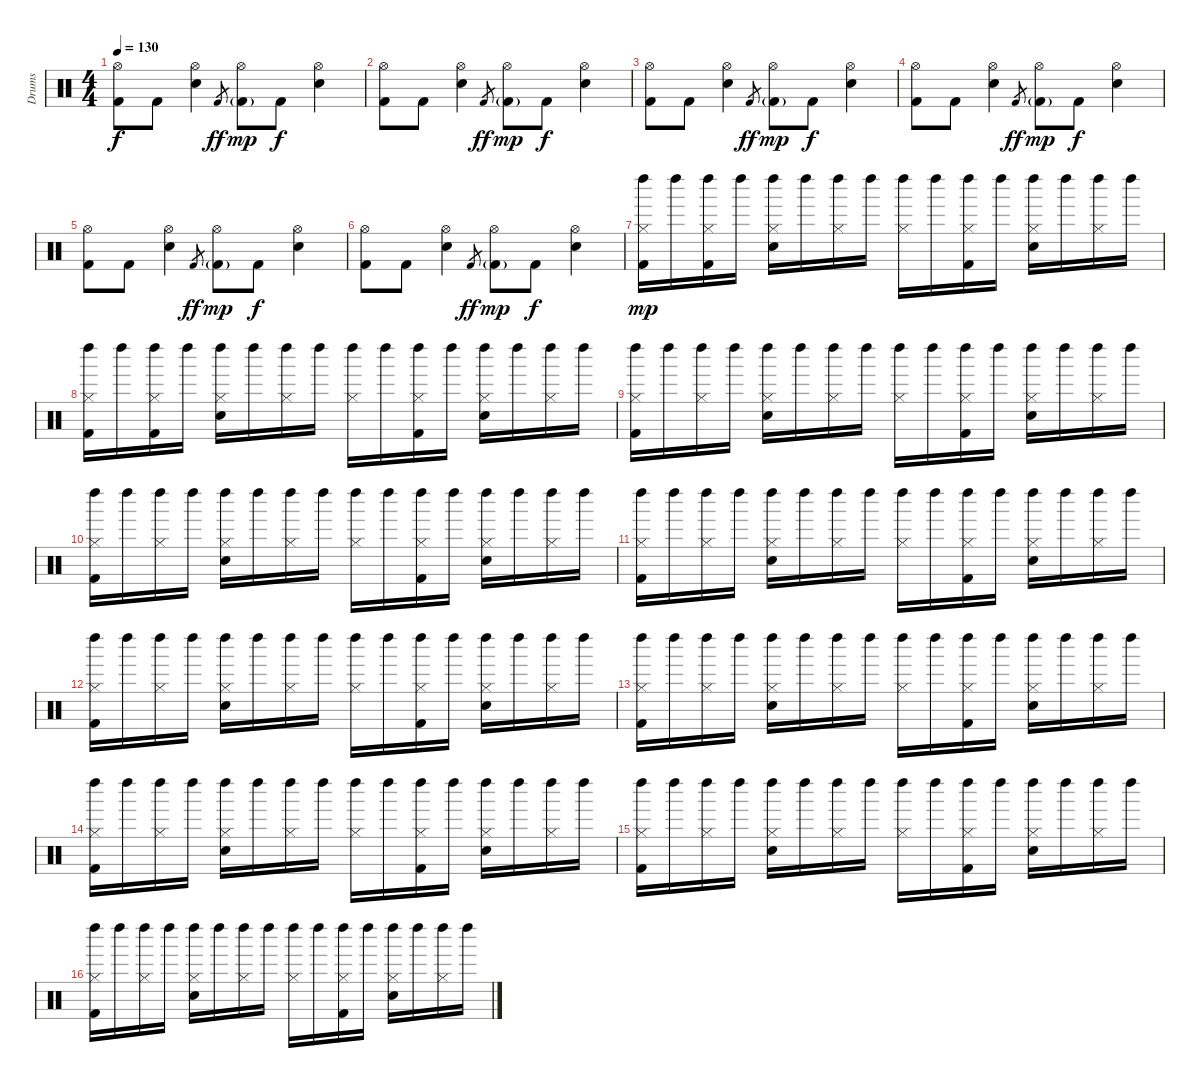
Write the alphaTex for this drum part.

\track ("Drums" "Drums") {instrument percussion}
\staff {score}
\articulation defaults
\ts (4 4)
\tempo 130
\clef neutral
\ks c
("Hi-Hat (open)" "Kick (hit) 2").8{dy f} "Kick (hit) 2".8 ("Hi-Hat (open)" "Electric Snare (hit)").4 "Kick (hit) 2".8{gr dy ff} ("Hi-Hat (open)" "Kick (hit) 2"{g}).8{dy mp} "Kick (hit) 2".8{dy f} ("Hi-Hat (open)" "Electric Snare (hit)").4 |
("Hi-Hat (open)" "Kick (hit) 2").8 "Kick (hit) 2".8 ("Hi-Hat (open)" "Electric Snare (hit)").4 "Kick (hit) 2".8{gr dy ff} ("Hi-Hat (open)" "Kick (hit) 2"{g}).8{dy mp} "Kick (hit) 2".8{dy f} ("Hi-Hat (open)" "Electric Snare (hit)").4 |
("Hi-Hat (open)" "Kick (hit) 2").8 "Kick (hit) 2".8 ("Hi-Hat (open)" "Electric Snare (hit)").4 "Kick (hit) 2".8{gr dy ff} ("Hi-Hat (open)" "Kick (hit) 2"{g}).8{dy mp} "Kick (hit) 2".8{dy f} ("Hi-Hat (open)" "Electric Snare (hit)").4 |
("Hi-Hat (open)" "Kick (hit) 2").8 "Kick (hit) 2".8 ("Hi-Hat (open)" "Electric Snare (hit)").4 "Kick (hit) 2".8{gr dy ff} ("Hi-Hat (open)" "Kick (hit) 2"{g}).8{dy mp} "Kick (hit) 2".8{dy f} ("Hi-Hat (open)" "Electric Snare (hit)").4 |
("Hi-Hat (open)" "Kick (hit) 2").8 "Kick (hit) 2".8 ("Hi-Hat (open)" "Electric Snare (hit)").4 "Kick (hit) 2".8{gr dy ff} ("Hi-Hat (open)" "Kick (hit) 2"{g}).8{dy mp} "Kick (hit) 2".8{dy f} ("Hi-Hat (open)" "Electric Snare (hit)").4 |
("Hi-Hat (open)" "Kick (hit) 2").8 "Kick (hit) 2".8 ("Hi-Hat (open)" "Electric Snare (hit)").4 "Kick (hit) 2".8{gr dy ff} ("Hi-Hat (open)" "Kick (hit) 2"{g}).8{dy mp} "Kick (hit) 2".8{dy f} ("Hi-Hat (open)" "Electric Snare (hit)").4 |
("Left Maraca (hit)" "Hi-Hat (closed)" "Kick (hit) 2").16{dy mp} "Left Maraca (hit)".16 ("Left Maraca (hit)" "Hi-Hat (closed)" "Kick (hit) 2").16 "Left Maraca (hit)".16 ("Left Maraca (hit)" "Hi-Hat (closed)" "Electric Snare (hit)").16 "Left Maraca (hit)".16 ("Left Maraca (hit)" "Hi-Hat (closed)").16 "Left Maraca (hit)".16 ("Left Maraca (hit)" "Hi-Hat (closed)").16 "Left Maraca (hit)".16 ("Left Maraca (hit)" "Hi-Hat (closed)" "Kick (hit) 2").16 "Left Maraca (hit)".16 ("Left Maraca (hit)" "Hi-Hat (closed)" "Electric Snare (hit)").16 "Left Maraca (hit)".16 ("Left Maraca (hit)" "Hi-Hat (closed)").16 "Left Maraca (hit)".16 |
("Left Maraca (hit)" "Hi-Hat (closed)" "Kick (hit) 2").16 "Left Maraca (hit)".16 ("Left Maraca (hit)" "Hi-Hat (closed)" "Kick (hit) 2").16 "Left Maraca (hit)".16 ("Left Maraca (hit)" "Hi-Hat (closed)" "Electric Snare (hit)").16 "Left Maraca (hit)".16 ("Left Maraca (hit)" "Hi-Hat (closed)").16 "Left Maraca (hit)".16 ("Left Maraca (hit)" "Hi-Hat (closed)").16 "Left Maraca (hit)".16 ("Left Maraca (hit)" "Hi-Hat (closed)" "Kick (hit) 2").16 "Left Maraca (hit)".16 ("Left Maraca (hit)" "Hi-Hat (closed)" "Electric Snare (hit)").16 "Left Maraca (hit)".16 ("Left Maraca (hit)" "Hi-Hat (closed)").16 "Left Maraca (hit)".16 |
("Left Maraca (hit)" "Hi-Hat (closed)" "Kick (hit) 2").16 "Left Maraca (hit)".16 ("Left Maraca (hit)" "Hi-Hat (closed)").16 "Left Maraca (hit)".16 ("Left Maraca (hit)" "Hi-Hat (closed)" "Electric Snare (hit)").16 "Left Maraca (hit)".16 ("Left Maraca (hit)" "Hi-Hat (closed)").16 "Left Maraca (hit)".16 ("Left Maraca (hit)" "Hi-Hat (closed)").16 "Left Maraca (hit)".16 ("Left Maraca (hit)" "Hi-Hat (closed)" "Kick (hit) 2").16 "Left Maraca (hit)".16 ("Left Maraca (hit)" "Hi-Hat (closed)" "Electric Snare (hit)").16 "Left Maraca (hit)".16 ("Left Maraca (hit)" "Hi-Hat (closed)").16 "Left Maraca (hit)".16 |
("Left Maraca (hit)" "Hi-Hat (closed)" "Kick (hit) 2").16 "Left Maraca (hit)".16 ("Left Maraca (hit)" "Hi-Hat (closed)").16 "Left Maraca (hit)".16 ("Left Maraca (hit)" "Hi-Hat (closed)" "Electric Snare (hit)").16 "Left Maraca (hit)".16 ("Left Maraca (hit)" "Hi-Hat (closed)").16 "Left Maraca (hit)".16 ("Left Maraca (hit)" "Hi-Hat (closed)").16 "Left Maraca (hit)".16 ("Left Maraca (hit)" "Hi-Hat (closed)" "Kick (hit) 2").16 "Left Maraca (hit)".16 ("Left Maraca (hit)" "Hi-Hat (closed)" "Electric Snare (hit)").16 "Left Maraca (hit)".16 ("Left Maraca (hit)" "Hi-Hat (closed)").16 "Left Maraca (hit)".16 |
("Left Maraca (hit)" "Hi-Hat (closed)" "Kick (hit) 2").16 "Left Maraca (hit)".16 ("Left Maraca (hit)" "Hi-Hat (closed)").16 "Left Maraca (hit)".16 ("Left Maraca (hit)" "Hi-Hat (closed)" "Electric Snare (hit)").16 "Left Maraca (hit)".16 ("Left Maraca (hit)" "Hi-Hat (closed)").16 "Left Maraca (hit)".16 ("Left Maraca (hit)" "Hi-Hat (closed)").16 "Left Maraca (hit)".16 ("Left Maraca (hit)" "Hi-Hat (closed)" "Kick (hit) 2").16 "Left Maraca (hit)".16 ("Left Maraca (hit)" "Hi-Hat (closed)" "Electric Snare (hit)").16 "Left Maraca (hit)".16 ("Left Maraca (hit)" "Hi-Hat (closed)").16 "Left Maraca (hit)".16 |
("Left Maraca (hit)" "Hi-Hat (closed)" "Kick (hit) 2").16 "Left Maraca (hit)".16 ("Left Maraca (hit)" "Hi-Hat (closed)").16 "Left Maraca (hit)".16 ("Left Maraca (hit)" "Hi-Hat (closed)" "Electric Snare (hit)").16 "Left Maraca (hit)".16 ("Left Maraca (hit)" "Hi-Hat (closed)").16 "Left Maraca (hit)".16 ("Left Maraca (hit)" "Hi-Hat (closed)").16 "Left Maraca (hit)".16 ("Left Maraca (hit)" "Hi-Hat (closed)" "Kick (hit) 2").16 "Left Maraca (hit)".16 ("Left Maraca (hit)" "Hi-Hat (closed)" "Electric Snare (hit)").16 "Left Maraca (hit)".16 ("Left Maraca (hit)" "Hi-Hat (closed)").16 "Left Maraca (hit)".16 |
("Left Maraca (hit)" "Hi-Hat (closed)" "Kick (hit) 2").16 "Left Maraca (hit)".16 ("Left Maraca (hit)" "Hi-Hat (closed)").16 "Left Maraca (hit)".16 ("Left Maraca (hit)" "Hi-Hat (closed)" "Electric Snare (hit)").16 "Left Maraca (hit)".16 ("Left Maraca (hit)" "Hi-Hat (closed)").16 "Left Maraca (hit)".16 ("Left Maraca (hit)" "Hi-Hat (closed)").16 "Left Maraca (hit)".16 ("Left Maraca (hit)" "Hi-Hat (closed)" "Kick (hit) 2").16 "Left Maraca (hit)".16 ("Left Maraca (hit)" "Hi-Hat (closed)" "Electric Snare (hit)").16 "Left Maraca (hit)".16 ("Left Maraca (hit)" "Hi-Hat (closed)").16 "Left Maraca (hit)".16 |
("Left Maraca (hit)" "Hi-Hat (closed)" "Kick (hit) 2").16 "Left Maraca (hit)".16 ("Left Maraca (hit)" "Hi-Hat (closed)").16 "Left Maraca (hit)".16 ("Left Maraca (hit)" "Hi-Hat (closed)" "Electric Snare (hit)").16 "Left Maraca (hit)".16 ("Left Maraca (hit)" "Hi-Hat (closed)").16 "Left Maraca (hit)".16 ("Left Maraca (hit)" "Hi-Hat (closed)").16 "Left Maraca (hit)".16 ("Left Maraca (hit)" "Hi-Hat (closed)" "Kick (hit) 2").16 "Left Maraca (hit)".16 ("Left Maraca (hit)" "Hi-Hat (closed)" "Electric Snare (hit)").16 "Left Maraca (hit)".16 ("Left Maraca (hit)" "Hi-Hat (closed)").16 "Left Maraca (hit)".16 |
("Left Maraca (hit)" "Hi-Hat (closed)" "Kick (hit) 2").16 "Left Maraca (hit)".16 ("Left Maraca (hit)" "Hi-Hat (closed)").16 "Left Maraca (hit)".16 ("Left Maraca (hit)" "Hi-Hat (closed)" "Electric Snare (hit)").16 "Left Maraca (hit)".16 ("Left Maraca (hit)" "Hi-Hat (closed)").16 "Left Maraca (hit)".16 ("Left Maraca (hit)" "Hi-Hat (closed)").16 "Left Maraca (hit)".16 ("Left Maraca (hit)" "Hi-Hat (closed)" "Kick (hit) 2").16 "Left Maraca (hit)".16 ("Left Maraca (hit)" "Hi-Hat (closed)" "Electric Snare (hit)").16 "Left Maraca (hit)".16 ("Left Maraca (hit)" "Hi-Hat (closed)").16 "Left Maraca (hit)".16 |
("Left Maraca (hit)" "Hi-Hat (closed)" "Kick (hit) 2").16 "Left Maraca (hit)".16 ("Left Maraca (hit)" "Hi-Hat (closed)").16 "Left Maraca (hit)".16 ("Left Maraca (hit)" "Hi-Hat (closed)" "Electric Snare (hit)").16 "Left Maraca (hit)".16 ("Left Maraca (hit)" "Hi-Hat (closed)").16 "Left Maraca (hit)".16 ("Left Maraca (hit)" "Hi-Hat (closed)").16 "Left Maraca (hit)".16 ("Left Maraca (hit)" "Hi-Hat (closed)" "Kick (hit) 2").16 "Left Maraca (hit)".16 ("Left Maraca (hit)" "Hi-Hat (closed)" "Electric Snare (hit)").16 "Left Maraca (hit)".16 ("Left Maraca (hit)" "Hi-Hat (closed)").16 "Left Maraca (hit)".16
